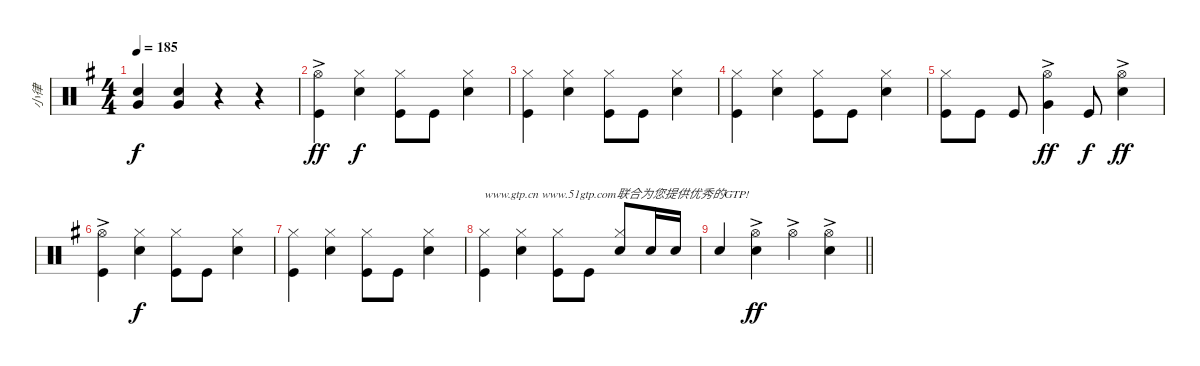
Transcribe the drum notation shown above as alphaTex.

\track ("小律" "小律") {instrument percussion}
\staff {score}
\articulation defaults
\ts (4 4)
\tempo 185
\clef neutral
\ks g
("Very Low Tom (hit)" "Snare (hit) 2").4{dy f} ("Very Low Tom (hit)" "Snare (hit) 2").4 r.4 r.4 |
("Hi-Hat (open)" "Kick (hit)"{ac}).4{dy ff} ("Hi-Hat (closed)" "Snare (hit) 2").4{dy f} ("Hi-Hat (closed)" "Kick (hit)").8 "Kick (hit)".8 ("Hi-Hat (closed)" "Snare (hit) 2").4 |
("Hi-Hat (closed)" "Kick (hit)").4 ("Hi-Hat (closed)" "Snare (hit) 2").4 ("Hi-Hat (closed)" "Kick (hit)").8 "Kick (hit)".8 ("Hi-Hat (closed)" "Snare (hit) 2").4 |
("Hi-Hat (closed)" "Kick (hit)").4 ("Hi-Hat (closed)" "Snare (hit) 2").4 ("Hi-Hat (closed)" "Kick (hit)").8 "Kick (hit)".8 ("Hi-Hat (closed)" "Snare (hit) 2").4 |
("Hi-Hat (closed)" "Kick (hit)").8 "Kick (hit)".8 "Kick (hit)".8 ("Hi-Hat (open)"{ac} "Very Low Tom (hit)").4{dy ff} "Kick (hit)".8{dy f} ("Hi-Hat (open)"{ac} "Snare (hit) 2").4{dy ff} |
("Hi-Hat (open)" "Kick (hit)"{ac}).4 ("Hi-Hat (closed)" "Snare (hit) 2").4{dy f} ("Hi-Hat (closed)" "Kick (hit)").8 "Kick (hit)".8 ("Hi-Hat (closed)" "Snare (hit) 2").4 |
("Hi-Hat (closed)" "Kick (hit)").4 ("Hi-Hat (closed)" "Snare (hit) 2").4 ("Hi-Hat (closed)" "Kick (hit)").8 "Kick (hit)".8 ("Hi-Hat (closed)" "Snare (hit) 2").4 |
("Hi-Hat (closed)" "Kick (hit)").4{txt "www.gtp.cn www.51gtp.com联合为您提供优秀的GTP!"} ("Hi-Hat (closed)" "Snare (hit) 2").4 ("Hi-Hat (closed)" "Kick (hit)").8 "Kick (hit)".8 ("Hi-Hat (closed)" "Snare (hit) 2").8{beam Up} "Snare (hit) 2".16{beam Up} "Snare (hit) 2".16{beam Up} |
\barLineRight lightlight "Snare (hit) 2".4{beam Up}
("Snare (hit) 2" "Hi-Hat (open)"{ac}).4{dy ff} "Hi-Hat (open)"{ac}.4 ("Hi-Hat (open)"{ac} "Snare (hit) 2").4
